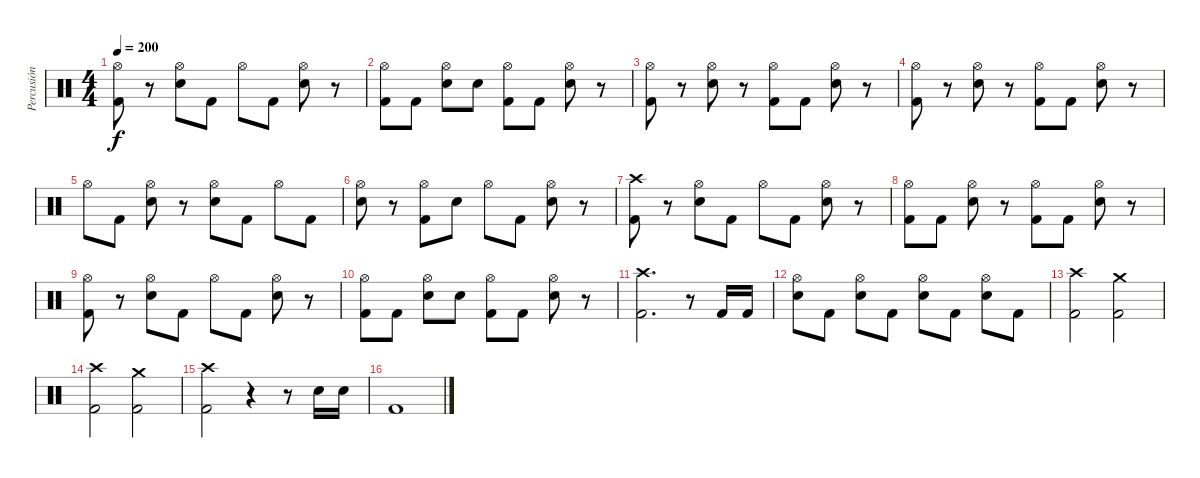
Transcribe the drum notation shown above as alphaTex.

\track ("Percusión" "Percusión") {instrument percussion}
\staff {score}
\articulation defaults
\ts (4 4)
\tempo 200
\clef neutral
\ks c
("Kick (hit) 2" "Hi-Hat (open)").8{dy f} r.8 ("Snare (hit) 2" "Hi-Hat (open)").8 "Kick (hit) 2".8 "Hi-Hat (open)".8 "Kick (hit) 2".8 ("Snare (hit) 2" "Hi-Hat (open)").8 r.8 |
("Kick (hit) 2" "Hi-Hat (open)").8 "Kick (hit) 2".8 ("Snare (hit) 2" "Hi-Hat (open)").8 "Snare (hit) 2".8 ("Kick (hit) 2" "Hi-Hat (open)").8 "Kick (hit) 2".8 ("Snare (hit) 2" "Hi-Hat (open)").8 r.8 |
("Kick (hit) 2" "Hi-Hat (open)").8 r.8 ("Snare (hit) 2" "Hi-Hat (open)").8 r.8 ("Kick (hit) 2" "Hi-Hat (open)").8 "Kick (hit) 2".8 ("Snare (hit) 2" "Hi-Hat (open)").8 r.8 |
("Kick (hit) 2" "Hi-Hat (open)").8 r.8 ("Snare (hit) 2" "Hi-Hat (open)").8 r.8 ("Kick (hit) 2" "Hi-Hat (open)").8 "Kick (hit) 2".8 ("Snare (hit) 2" "Hi-Hat (open)").8 r.8 |
"Hi-Hat (open)".8 "Kick (hit) 2".8 ("Snare (hit) 2" "Hi-Hat (open)").8 r.8 ("Snare (hit) 2" "Hi-Hat (open)").8 "Kick (hit) 2".8 "Hi-Hat (open)".8 "Kick (hit) 2".8 |
("Snare (hit) 2" "Hi-Hat (open)").8 r.8 ("Kick (hit) 2" "Hi-Hat (open)").8 "Snare (hit) 2".8 "Hi-Hat (open)".8 "Kick (hit) 2".8 ("Snare (hit) 2" "Hi-Hat (open)").8 r.8 |
("Kick (hit) 2" "Crash high (hit)").8 r.8 ("Snare (hit) 2" "Hi-Hat (open)").8 "Kick (hit) 2".8 "Hi-Hat (open)".8 "Kick (hit) 2".8 ("Snare (hit) 2" "Hi-Hat (open)").8 r.8 |
("Kick (hit) 2" "Hi-Hat (open)").8 "Kick (hit) 2".8 ("Snare (hit) 2" "Hi-Hat (open)").8 r.8 ("Kick (hit) 2" "Hi-Hat (open)").8 "Kick (hit) 2".8 ("Snare (hit) 2" "Hi-Hat (open)").8 r.8 |
("Kick (hit) 2" "Hi-Hat (open)").8 r.8 ("Snare (hit) 2" "Hi-Hat (open)").8 "Kick (hit) 2".8 "Hi-Hat (open)".8 "Kick (hit) 2".8 ("Snare (hit) 2" "Hi-Hat (open)").8 r.8 |
("Kick (hit) 2" "Hi-Hat (open)").8 "Kick (hit) 2".8 ("Snare (hit) 2" "Hi-Hat (open)").8 "Snare (hit) 2".8 ("Kick (hit) 2" "Hi-Hat (open)").8 "Kick (hit) 2".8 ("Snare (hit) 2" "Hi-Hat (open)").8 r.8 |
("Kick (hit) 2" "Crash high (hit)").2{d} r.8 "Kick (hit) 2".16 "Kick (hit) 2".16 |
("Snare (hit) 2" "Hi-Hat (open)").8 "Kick (hit) 2".8 ("Snare (hit) 2" "Hi-Hat (open)").8 "Kick (hit) 2".8 ("Snare (hit) 2" "Hi-Hat (open)").8 "Kick (hit) 2".8 ("Snare (hit) 2" "Hi-Hat (open)").8 "Kick (hit) 2".8 |
("Kick (hit) 2" "Crash high (hit)").2 ("Kick (hit) 2" "Crash medium (hit)").2 |
("Kick (hit) 2" "Crash high (hit)").2 ("Kick (hit) 2" "Crash medium (hit)").2 |
("Kick (hit) 2" "Crash high (hit)").2 r.4 r.8 "Snare (hit) 2".16 "Snare (hit) 2".16 |
"Kick (hit) 2".1
